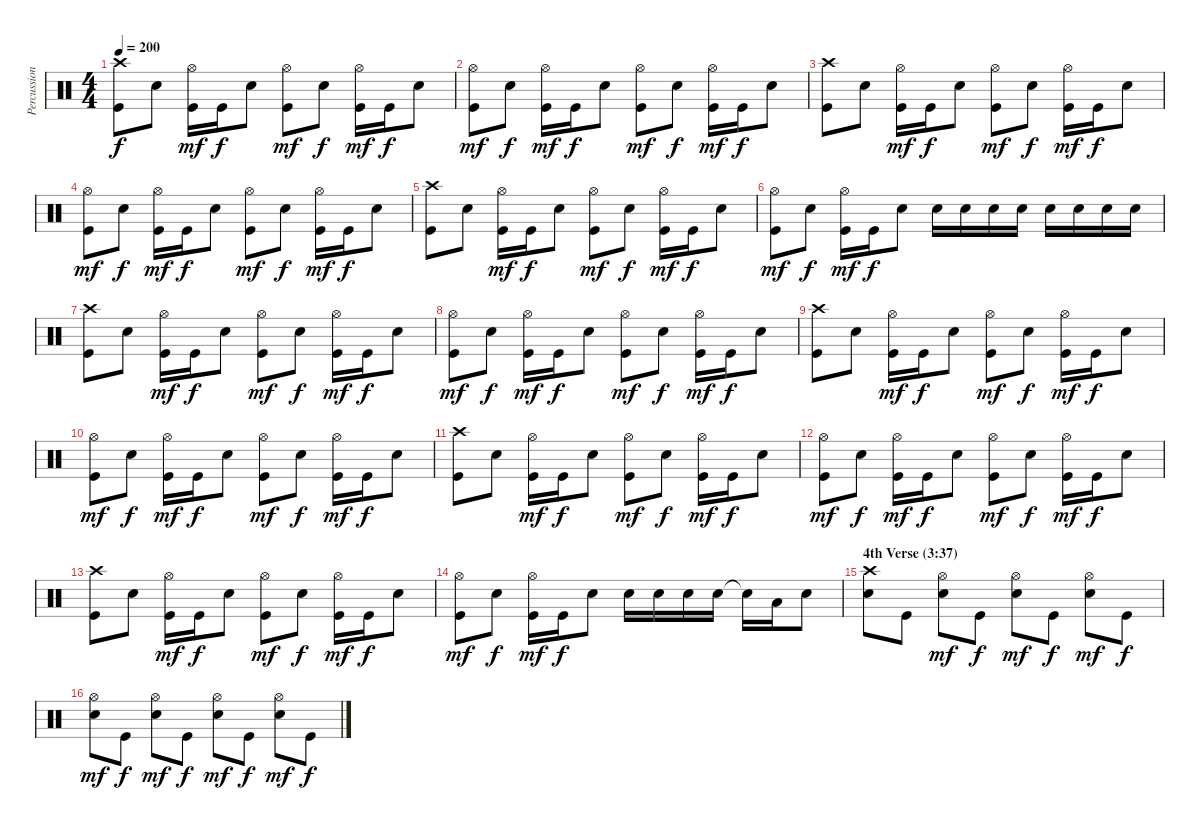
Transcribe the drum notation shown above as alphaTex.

\track ("Percussion" "Percussion") {instrument percussion}
\staff {score}
\articulation defaults
\ts (4 4)
\tempo 200
\clef neutral
\ks c
("Crash high (hit)" "Kick (hit)").8{dy f} "Snare (hit) 2".8 ("Hi-Hat (open)" "Kick (hit)").16{dy mf} "Kick (hit)".16{dy f} "Snare (hit) 2".8 ("Hi-Hat (open)" "Kick (hit)").8{dy mf} "Snare (hit) 2".8{dy f} ("Hi-Hat (open)" "Kick (hit)").16{dy mf} "Kick (hit)".16{dy f} "Snare (hit) 2".8 |
("Hi-Hat (open)" "Kick (hit)").8{dy mf} "Snare (hit) 2".8{dy f} ("Hi-Hat (open)" "Kick (hit)").16{dy mf} "Kick (hit)".16{dy f} "Snare (hit) 2".8 ("Hi-Hat (open)" "Kick (hit)").8{dy mf} "Snare (hit) 2".8{dy f} ("Hi-Hat (open)" "Kick (hit)").16{dy mf} "Kick (hit)".16{dy f} "Snare (hit) 2".8 |
("Crash high (hit)" "Kick (hit)").8 "Snare (hit) 2".8 ("Hi-Hat (open)" "Kick (hit)").16{dy mf} "Kick (hit)".16{dy f} "Snare (hit) 2".8 ("Hi-Hat (open)" "Kick (hit)").8{dy mf} "Snare (hit) 2".8{dy f} ("Hi-Hat (open)" "Kick (hit)").16{dy mf} "Kick (hit)".16{dy f} "Snare (hit) 2".8 |
("Hi-Hat (open)" "Kick (hit)").8{dy mf} "Snare (hit) 2".8{dy f} ("Hi-Hat (open)" "Kick (hit)").16{dy mf} "Kick (hit)".16{dy f} "Snare (hit) 2".8 ("Hi-Hat (open)" "Kick (hit)").8{dy mf} "Snare (hit) 2".8{dy f} ("Hi-Hat (open)" "Kick (hit)").16{dy mf} "Kick (hit)".16{dy f} "Snare (hit) 2".8 |
("Crash high (hit)" "Kick (hit)").8 "Snare (hit) 2".8 ("Hi-Hat (open)" "Kick (hit)").16{dy mf} "Kick (hit)".16{dy f} "Snare (hit) 2".8 ("Hi-Hat (open)" "Kick (hit)").8{dy mf} "Snare (hit) 2".8{dy f} ("Hi-Hat (open)" "Kick (hit)").16{dy mf} "Kick (hit)".16{dy f} "Snare (hit) 2".8 |
("Hi-Hat (open)" "Kick (hit)").8{dy mf} "Snare (hit) 2".8{dy f} ("Hi-Hat (open)" "Kick (hit)").16{dy mf} "Kick (hit)".16{dy f} "Snare (hit) 2".8 "Snare (hit) 2".16 "Snare (hit) 2".16 "Snare (hit) 2".16 "Snare (hit) 2".16 "Snare (hit) 2".16 "Snare (hit) 2".16 "Snare (hit) 2".16 "Snare (hit) 2".16 |
("Crash high (hit)" "Kick (hit)").8 "Snare (hit) 2".8 ("Hi-Hat (open)" "Kick (hit)").16{dy mf} "Kick (hit)".16{dy f} "Snare (hit) 2".8 ("Hi-Hat (open)" "Kick (hit)").8{dy mf} "Snare (hit) 2".8{dy f} ("Hi-Hat (open)" "Kick (hit)").16{dy mf} "Kick (hit)".16{dy f} "Snare (hit) 2".8 |
("Hi-Hat (open)" "Kick (hit)").8{dy mf} "Snare (hit) 2".8{dy f} ("Hi-Hat (open)" "Kick (hit)").16{dy mf} "Kick (hit)".16{dy f} "Snare (hit) 2".8 ("Hi-Hat (open)" "Kick (hit)").8{dy mf} "Snare (hit) 2".8{dy f} ("Hi-Hat (open)" "Kick (hit)").16{dy mf} "Kick (hit)".16{dy f} "Snare (hit) 2".8 |
("Crash high (hit)" "Kick (hit)").8 "Snare (hit) 2".8 ("Hi-Hat (open)" "Kick (hit)").16{dy mf} "Kick (hit)".16{dy f} "Snare (hit) 2".8 ("Hi-Hat (open)" "Kick (hit)").8{dy mf} "Snare (hit) 2".8{dy f} ("Hi-Hat (open)" "Kick (hit)").16{dy mf} "Kick (hit)".16{dy f} "Snare (hit) 2".8 |
("Hi-Hat (open)" "Kick (hit)").8{dy mf} "Snare (hit) 2".8{dy f} ("Hi-Hat (open)" "Kick (hit)").16{dy mf} "Kick (hit)".16{dy f} "Snare (hit) 2".8 ("Hi-Hat (open)" "Kick (hit)").8{dy mf} "Snare (hit) 2".8{dy f} ("Hi-Hat (open)" "Kick (hit)").16{dy mf} "Kick (hit)".16{dy f} "Snare (hit) 2".8 |
("Crash high (hit)" "Kick (hit)").8 "Snare (hit) 2".8 ("Hi-Hat (open)" "Kick (hit)").16{dy mf} "Kick (hit)".16{dy f} "Snare (hit) 2".8 ("Hi-Hat (open)" "Kick (hit)").8{dy mf} "Snare (hit) 2".8{dy f} ("Hi-Hat (open)" "Kick (hit)").16{dy mf} "Kick (hit)".16{dy f} "Snare (hit) 2".8 |
("Hi-Hat (open)" "Kick (hit)").8{dy mf} "Snare (hit) 2".8{dy f} ("Hi-Hat (open)" "Kick (hit)").16{dy mf} "Kick (hit)".16{dy f} "Snare (hit) 2".8 ("Hi-Hat (open)" "Kick (hit)").8{dy mf} "Snare (hit) 2".8{dy f} ("Hi-Hat (open)" "Kick (hit)").16{dy mf} "Kick (hit)".16{dy f} "Snare (hit) 2".8 |
("Crash high (hit)" "Kick (hit)").8 "Snare (hit) 2".8 ("Hi-Hat (open)" "Kick (hit)").16{dy mf} "Kick (hit)".16{dy f} "Snare (hit) 2".8 ("Hi-Hat (open)" "Kick (hit)").8{dy mf} "Snare (hit) 2".8{dy f} ("Hi-Hat (open)" "Kick (hit)").16{dy mf} "Kick (hit)".16{dy f} "Snare (hit) 2".8 |
("Hi-Hat (open)" "Kick (hit)").8{dy mf} "Snare (hit) 2".8{dy f} ("Hi-Hat (open)" "Kick (hit)").16{dy mf} "Kick (hit)".16{dy f} "Snare (hit) 2".8 "Snare (hit) 2".16 "Snare (hit) 2".16 "Snare (hit) 2".16 "Snare (hit) 2".16 "Snare (hit)"{t}.16 "Low Tom (hit)".16 "Snare (hit) 2".8 |
\section ("" "4th Verse (3:37)")
("Crash high (hit)" "Snare (hit) 2").8 "Kick (hit)".8 ("Hi-Hat (open)" "Snare (hit) 2").8{dy mf} "Kick (hit)".8{dy f} ("Hi-Hat (open)" "Snare (hit) 2").8{dy mf} "Kick (hit)".8{dy f} ("Hi-Hat (open)" "Snare (hit) 2").8{dy mf} "Kick (hit)".8{dy f} |
("Hi-Hat (open)" "Snare (hit) 2").8{dy mf} "Kick (hit)".8{dy f} ("Hi-Hat (open)" "Snare (hit) 2").8{dy mf} "Kick (hit)".8{dy f} ("Hi-Hat (open)" "Snare (hit) 2").8{dy mf} "Kick (hit)".8{dy f} ("Hi-Hat (open)" "Snare (hit) 2").8{dy mf} "Kick (hit)".8{dy f}
